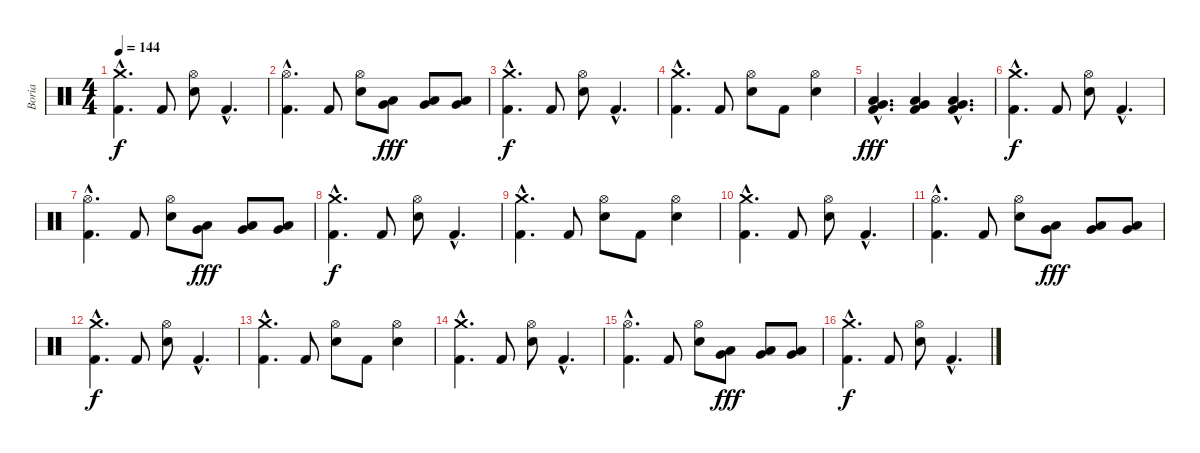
\track ("Boria" "Boria") {instrument percussion}
\staff {score}
\articulation defaults
\ts (4 4)
\tempo 144
\clef neutral
\ks c
("Kick (hit) 2"{hac} "Crash medium (hit)"{hac}).4{d dy f} "Kick (hit) 2".8 ("Electric Snare (hit)" "Hi-Hat (open)").8 "Kick (hit) 2"{hac}.4{d} |
("Kick (hit) 2"{hac} "Hi-Hat (open)"{hac}).4{d} "Kick (hit) 2".8 ("Electric Snare (hit)" "Hi-Hat (open)").8 ("Low Tom (hit)" "Very Low Tom (hit)").8{dy fff} ("Low Tom (hit)" "Very Low Tom (hit)").8 ("Low Tom (hit)" "Very Low Tom (hit)").8 |
("Kick (hit) 2"{hac} "Crash medium (hit)"{hac}).4{d dy f} "Kick (hit) 2".8 ("Electric Snare (hit)" "Hi-Hat (open)").8 "Kick (hit) 2"{hac}.4{d} |
("Kick (hit) 2"{hac} "Crash medium (hit)"{hac}).4{d} "Kick (hit) 2".8 ("Electric Snare (hit)" "Hi-Hat (open)").8 "Kick (hit) 2".8 ("Hi-Hat (open)" "Electric Snare (hit)").4 |
("Very Low Tom (hit)"{hac} "Kick (hit) 2"{hac} "Low Floor Tom (hit)"{hac}).4{d dy fff} ("Kick (hit) 2" "Low Floor Tom (hit)" "Very Low Tom (hit)").4 ("Kick (hit) 2"{hac} "Low Floor Tom (hit)"{hac} "Very Low Tom (hit)"{hac}).4{d} |
("Kick (hit) 2"{hac} "Crash medium (hit)"{hac}).4{d dy f} "Kick (hit) 2".8 ("Electric Snare (hit)" "Hi-Hat (open)").8 "Kick (hit) 2"{hac}.4{d} |
("Kick (hit) 2"{hac} "Hi-Hat (open)"{hac}).4{d} "Kick (hit) 2".8 ("Electric Snare (hit)" "Hi-Hat (open)").8 ("Low Tom (hit)" "Very Low Tom (hit)").8{dy fff} ("Low Tom (hit)" "Very Low Tom (hit)").8 ("Low Tom (hit)" "Very Low Tom (hit)").8 |
("Kick (hit) 2"{hac} "Crash medium (hit)"{hac}).4{d dy f} "Kick (hit) 2".8 ("Electric Snare (hit)" "Hi-Hat (open)").8 "Kick (hit) 2"{hac}.4{d} |
("Kick (hit) 2"{hac} "Crash medium (hit)"{hac}).4{d} "Kick (hit) 2".8 ("Electric Snare (hit)" "Hi-Hat (open)").8 "Kick (hit) 2".8 ("Hi-Hat (open)" "Electric Snare (hit)").4 |
("Kick (hit) 2"{hac} "Crash medium (hit)"{hac}).4{d} "Kick (hit) 2".8 ("Electric Snare (hit)" "Hi-Hat (open)").8 "Kick (hit) 2"{hac}.4{d} |
("Kick (hit) 2"{hac} "Hi-Hat (open)"{hac}).4{d} "Kick (hit) 2".8 ("Electric Snare (hit)" "Hi-Hat (open)").8 ("Low Tom (hit)" "Very Low Tom (hit)").8{dy fff} ("Low Tom (hit)" "Very Low Tom (hit)").8 ("Low Tom (hit)" "Very Low Tom (hit)").8 |
("Kick (hit) 2"{hac} "Crash medium (hit)"{hac}).4{d dy f} "Kick (hit) 2".8 ("Electric Snare (hit)" "Hi-Hat (open)").8 "Kick (hit) 2"{hac}.4{d} |
("Kick (hit) 2"{hac} "Crash medium (hit)"{hac}).4{d} "Kick (hit) 2".8 ("Electric Snare (hit)" "Hi-Hat (open)").8 "Kick (hit) 2".8 ("Hi-Hat (open)" "Electric Snare (hit)").4 |
("Kick (hit) 2"{hac} "Crash medium (hit)"{hac}).4{d} "Kick (hit) 2".8 ("Electric Snare (hit)" "Hi-Hat (open)").8 "Kick (hit) 2"{hac}.4{d} |
("Kick (hit) 2"{hac} "Hi-Hat (open)"{hac}).4{d} "Kick (hit) 2".8 ("Electric Snare (hit)" "Hi-Hat (open)").8 ("Low Tom (hit)" "Very Low Tom (hit)").8{dy fff} ("Low Tom (hit)" "Very Low Tom (hit)").8 ("Low Tom (hit)" "Very Low Tom (hit)").8 |
("Kick (hit) 2"{hac} "Crash medium (hit)"{hac}).4{d dy f} "Kick (hit) 2".8 ("Electric Snare (hit)" "Hi-Hat (open)").8 "Kick (hit) 2"{hac}.4{d}
